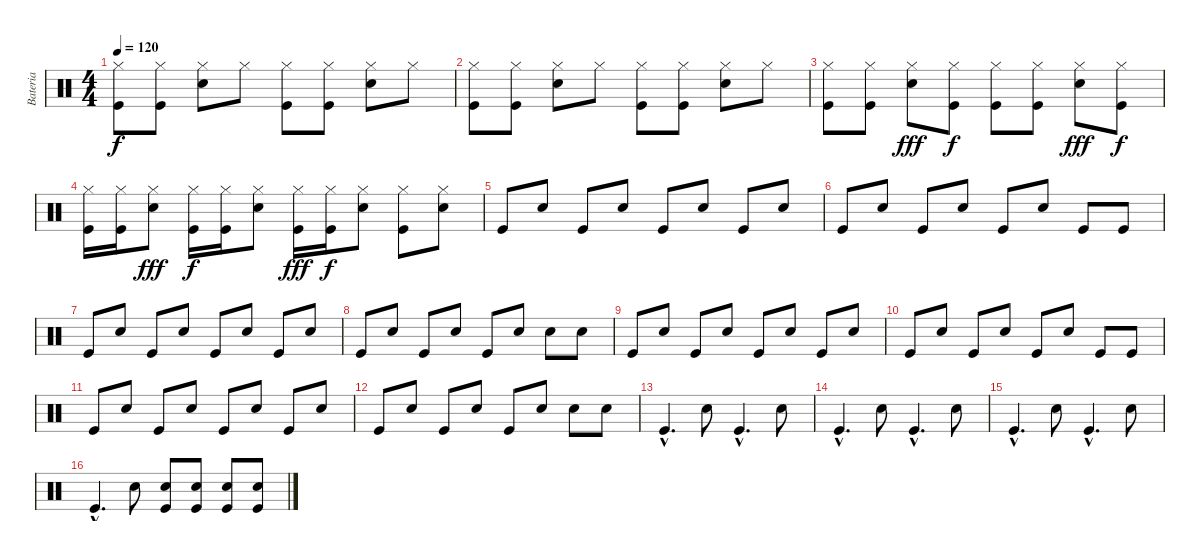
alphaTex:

\track ("Bateria" "Bateria") {instrument percussion}
\staff {score}
\articulation defaults
\ts (4 4)
\tempo 120
\clef neutral
\ks c
("Hi-Hat (closed)" "Kick (hit)").8{dy f} ("Hi-Hat (closed)" "Kick (hit)").8 ("Hi-Hat (closed)" "Snare (hit) 2").8 "Hi-Hat (closed)".8 ("Hi-Hat (closed)" "Kick (hit)").8 ("Hi-Hat (closed)" "Kick (hit)").8 ("Hi-Hat (closed)" "Snare (hit) 2").8 "Hi-Hat (closed)".8 |
("Hi-Hat (closed)" "Kick (hit)").8 ("Hi-Hat (closed)" "Kick (hit)").8 ("Hi-Hat (closed)" "Snare (hit) 2").8 "Hi-Hat (closed)".8 ("Hi-Hat (closed)" "Kick (hit)").8 ("Hi-Hat (closed)" "Kick (hit)").8 ("Hi-Hat (closed)" "Snare (hit) 2").8 "Hi-Hat (closed)".8 |
("Hi-Hat (closed)" "Kick (hit)").8 ("Hi-Hat (closed)" "Kick (hit)").8 ("Hi-Hat (closed)" "Snare (hit) 2").8{dy fff} ("Hi-Hat (closed)" "Kick (hit)").8{dy f} ("Hi-Hat (closed)" "Kick (hit)").8 ("Hi-Hat (closed)" "Kick (hit)").8 ("Hi-Hat (closed)" "Snare (hit) 2").8{dy fff} ("Hi-Hat (closed)" "Kick (hit)").8{dy f} |
("Hi-Hat (closed)" "Kick (hit)").16 ("Hi-Hat (closed)" "Kick (hit)").16 ("Hi-Hat (closed)" "Snare (hit) 2").8{dy fff} ("Hi-Hat (closed)" "Kick (hit)").16{dy f} ("Hi-Hat (closed)" "Kick (hit)").16 ("Hi-Hat (closed)" "Snare (hit) 2").8 ("Hi-Hat (closed)" "Kick (hit)").16{dy fff} ("Hi-Hat (closed)" "Kick (hit)").16{dy f} ("Hi-Hat (closed)" "Snare (hit) 2").8 ("Hi-Hat (closed)" "Kick (hit)").8 ("Hi-Hat (closed)" "Snare (hit) 2").8 |
"Kick (hit)".8 "Electric Snare (hit)".8 "Kick (hit)".8 "Electric Snare (hit)".8 "Kick (hit)".8 "Electric Snare (hit)".8 "Kick (hit)".8 "Electric Snare (hit)".8 |
"Kick (hit)".8 "Electric Snare (hit)".8 "Kick (hit)".8 "Electric Snare (hit)".8 "Kick (hit)".8 "Electric Snare (hit)".8 "Kick (hit)".8 "Kick (hit)".8 |
"Kick (hit)".8 "Electric Snare (hit)".8 "Kick (hit)".8 "Electric Snare (hit)".8 "Kick (hit)".8 "Electric Snare (hit)".8 "Kick (hit)".8 "Electric Snare (hit)".8 |
"Kick (hit)".8 "Electric Snare (hit)".8 "Kick (hit)".8 "Electric Snare (hit)".8 "Kick (hit)".8 "Electric Snare (hit)".8 "Electric Snare (hit)".8 "Electric Snare (hit)".8 |
"Kick (hit)".8 "Electric Snare (hit)".8 "Kick (hit)".8 "Electric Snare (hit)".8 "Kick (hit)".8 "Electric Snare (hit)".8 "Kick (hit)".8 "Electric Snare (hit)".8 |
"Kick (hit)".8 "Electric Snare (hit)".8 "Kick (hit)".8 "Electric Snare (hit)".8 "Kick (hit)".8 "Electric Snare (hit)".8 "Kick (hit)".8 "Kick (hit)".8 |
"Kick (hit)".8 "Electric Snare (hit)".8 "Kick (hit)".8 "Electric Snare (hit)".8 "Kick (hit)".8 "Electric Snare (hit)".8 "Kick (hit)".8 "Electric Snare (hit)".8 |
"Kick (hit)".8 "Electric Snare (hit)".8 "Kick (hit)".8 "Electric Snare (hit)".8 "Kick (hit)".8 "Electric Snare (hit)".8 "Electric Snare (hit)".8 "Electric Snare (hit)".8 |
"Kick (hit)"{hac}.4{d} "Electric Snare (hit)".8 "Kick (hit)"{hac}.4{d} "Electric Snare (hit)".8 |
"Kick (hit)"{hac}.4{d} "Electric Snare (hit)".8 "Kick (hit)"{hac}.4{d} "Electric Snare (hit)".8 |
"Kick (hit)"{hac}.4{d} "Electric Snare (hit)".8 "Kick (hit)"{hac}.4{d} "Electric Snare (hit)".8 |
"Kick (hit)"{hac}.4{d} "Electric Snare (hit)".8 ("Kick (hit)" "Snare (hit) 2").8 ("Kick (hit)" "Snare (hit) 2").8 ("Kick (hit)" "Snare (hit) 2").8 ("Kick (hit)" "Snare (hit) 2").8
